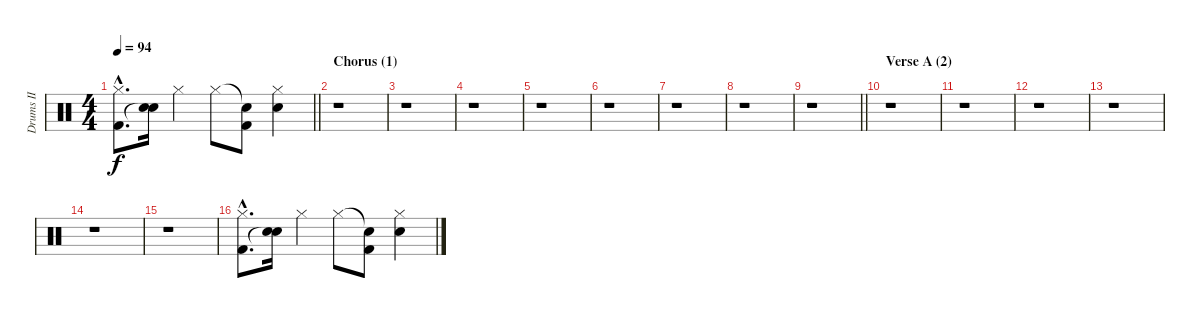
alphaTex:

\track ("Drums II" "Drums II") {instrument percussion}
\staff {score}
\articulation defaults
\ts (4 4)
\tempo 94
\clef neutral
\barLineRight lightlight
\ks aminor
("Hi-Hat (closed)"{hac} "Kick (hit) 2"{hac}).8{d dy f} ("Electric Snare (hit)" "Snare (hit)"{t}).16 "Hi-Hat (closed)".4 "Hi-Hat (closed)".8 ("Snare (hit)"{t} "Kick (hit) 2").8 ("Hi-Hat (closed)" "Electric Snare (hit)").4 |
\section ("" "Chorus (1)")
r.1 |
r.1 |
r.1 |
r.1 |
r.1 |
r.1 |
r.1 |
\barLineRight lightlight
r.1 |
\section ("" "Verse A (2)")
r.1 |
r.1 |
r.1 |
r.1 |
r.1 |
r.1 |
("Hi-Hat (closed)"{hac} "Kick (hit) 2"{hac}).8{d} ("Electric Snare (hit)" "Snare (hit)"{t}).16 "Hi-Hat (closed)".4 "Hi-Hat (closed)".8 ("Snare (hit)"{t} "Kick (hit) 2").8 ("Hi-Hat (closed)" "Electric Snare (hit)").4
